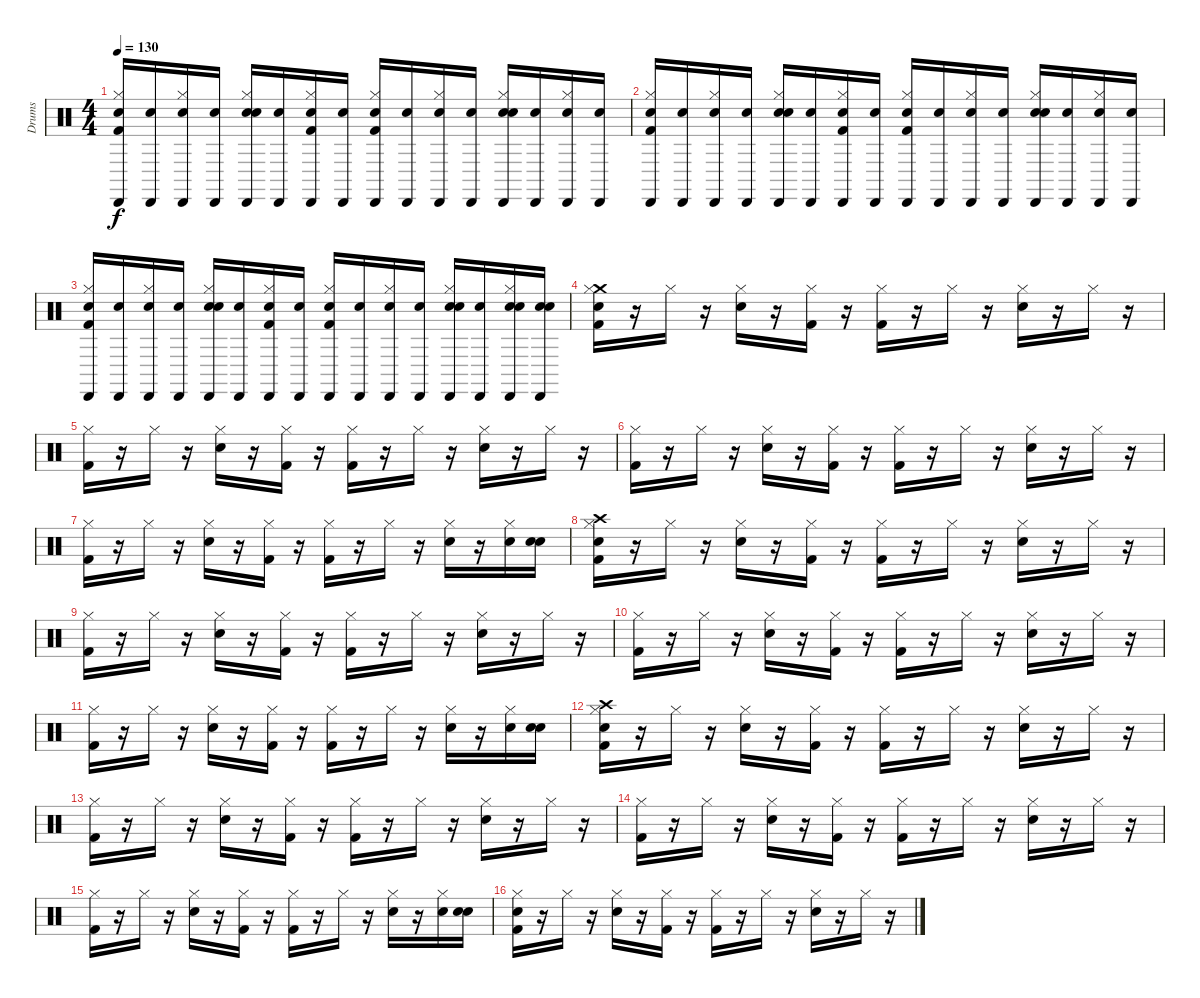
\track ("Drums" "Drums") {instrument percussion}
\staff {score}
\articulation defaults
\ts (4 4)
\tempo 130
\clef neutral
\ks c
("Snare (hit)" "Cabasa (hit)" "Hi-Hat (closed)" "Kick (hit) 2").16{dy f} ("Snare (hit)" "Cabasa (hit)").16 ("Snare (hit)" "Cabasa (hit)" "Hi-Hat (closed)").16 ("Snare (hit)" "Cabasa (hit)").16 ("Snare (hit)" "Cabasa (hit)" "Snare (hit) 2" "Hi-Hat (closed)").16 ("Snare (hit)" "Cabasa (hit)").16 ("Snare (hit)" "Kick (hit) 2" "Hi-Hat (closed)" "Cabasa (hit)").16 ("Snare (hit)" "Cabasa (hit)").16 ("Snare (hit)" "Kick (hit) 2" "Hi-Hat (closed)" "Cabasa (hit)").16 ("Snare (hit)" "Cabasa (hit)").16 ("Snare (hit)" "Cabasa (hit)" "Hi-Hat (closed)").16 ("Snare (hit)" "Cabasa (hit)").16 ("Snare (hit)" "Hi-Hat (closed)" "Cabasa (hit)" "Snare (hit) 2").16 ("Snare (hit)" "Cabasa (hit)").16 ("Snare (hit)" "Hi-Hat (closed)" "Cabasa (hit)").16 ("Snare (hit)" "Cabasa (hit)").16 |
("Snare (hit)" "Kick (hit) 2" "Hi-Hat (closed)" "Cabasa (hit)").16 ("Snare (hit)" "Cabasa (hit)").16 ("Snare (hit)" "Cabasa (hit)" "Hi-Hat (closed)").16 ("Snare (hit)" "Cabasa (hit)").16 ("Snare (hit)" "Snare (hit) 2" "Hi-Hat (closed)" "Cabasa (hit)").16 ("Snare (hit)" "Cabasa (hit)").16 ("Snare (hit)" "Hi-Hat (closed)" "Kick (hit) 2" "Cabasa (hit)").16 ("Snare (hit)" "Cabasa (hit)").16 ("Snare (hit)" "Cabasa (hit)" "Kick (hit) 2" "Hi-Hat (closed)").16 ("Snare (hit)" "Cabasa (hit)").16 ("Snare (hit)" "Hi-Hat (closed)" "Cabasa (hit)").16 ("Snare (hit)" "Cabasa (hit)").16 ("Snare (hit)" "Snare (hit) 2" "Hi-Hat (closed)" "Cabasa (hit)").16 ("Snare (hit)" "Cabasa (hit)").16 ("Snare (hit)" "Cabasa (hit)" "Hi-Hat (closed)").16 ("Snare (hit)" "Cabasa (hit)").16 |
("Snare (hit)" "Hi-Hat (closed)" "Cabasa (hit)" "Kick (hit) 2").16 ("Snare (hit)" "Cabasa (hit)").16 ("Snare (hit)" "Hi-Hat (closed)" "Cabasa (hit)").16 ("Snare (hit)" "Cabasa (hit)").16 ("Snare (hit)" "Cabasa (hit)" "Hi-Hat (closed)" "Snare (hit) 2").16 ("Snare (hit)" "Cabasa (hit)").16 ("Snare (hit)" "Kick (hit) 2" "Cabasa (hit)" "Hi-Hat (closed)").16 ("Snare (hit)" "Cabasa (hit)").16 ("Snare (hit)" "Hi-Hat (closed)" "Kick (hit) 2" "Cabasa (hit)").16 ("Snare (hit)" "Cabasa (hit)").16 ("Snare (hit)" "Cabasa (hit)" "Hi-Hat (closed)").16 ("Snare (hit)" "Cabasa (hit)").16 ("Snare (hit)" "Snare (hit) 2" "Cabasa (hit)" "Hi-Hat (closed)").16 ("Snare (hit)" "Cabasa (hit)").16 ("Snare (hit)" "Hi-Hat (closed)" "Cabasa (hit)" "Snare (hit) 2").16 ("Snare (hit)" "Snare (hit) 2" "Cabasa (hit)").16 |
("Snare (hit)" "Kick (hit) 2" "Crash medium (hit)" "Hi-Hat (closed)").16 r.16 "Hi-Hat (closed)".16 r.16 ("Snare (hit) 2" "Hi-Hat (closed)").16 r.16 ("Hi-Hat (closed)" "Kick (hit) 2").16 r.16 ("Kick (hit) 2" "Hi-Hat (closed)").16 r.16 "Hi-Hat (closed)".16 r.16 ("Hi-Hat (closed)" "Snare (hit) 2").16 r.16 "Hi-Hat (closed)".16 r.16 |
("Hi-Hat (closed)" "Kick (hit) 2").16 r.16 "Hi-Hat (closed)".16 r.16 ("Hi-Hat (closed)" "Snare (hit) 2").16 r.16 ("Kick (hit) 2" "Hi-Hat (closed)").16 r.16 ("Kick (hit) 2" "Hi-Hat (closed)").16 r.16 "Hi-Hat (closed)".16 r.16 ("Hi-Hat (closed)" "Snare (hit) 2").16 r.16 "Hi-Hat (closed)".16 r.16 |
("Kick (hit) 2" "Hi-Hat (closed)").16 r.16 "Hi-Hat (closed)".16 r.16 ("Snare (hit) 2" "Hi-Hat (closed)").16 r.16 ("Kick (hit) 2" "Hi-Hat (closed)").16 r.16 ("Kick (hit) 2" "Hi-Hat (closed)").16 r.16 "Hi-Hat (closed)".16 r.16 ("Hi-Hat (closed)" "Snare (hit) 2").16 r.16 "Hi-Hat (closed)".16 r.16 |
("Kick (hit) 2" "Hi-Hat (closed)").16 r.16 "Hi-Hat (closed)".16 r.16 ("Hi-Hat (closed)" "Snare (hit) 2").16 r.16 ("Hi-Hat (closed)" "Kick (hit) 2").16 r.16 ("Kick (hit) 2" "Hi-Hat (closed)").16 r.16 "Hi-Hat (closed)".16 r.16 ("Snare (hit) 2" "Hi-Hat (closed)").16 r.16 ("Snare (hit) 2" "Hi-Hat (closed)").16 ("Snare (hit)" "Snare (hit) 2").16 |
("Snare (hit)" "Crash high (hit)" "Hi-Hat (closed)" "Kick (hit) 2").16 r.16 "Hi-Hat (closed)".16 r.16 ("Hi-Hat (closed)" "Snare (hit) 2").16 r.16 ("Hi-Hat (closed)" "Kick (hit) 2").16 r.16 ("Kick (hit) 2" "Hi-Hat (closed)").16 r.16 "Hi-Hat (closed)".16 r.16 ("Snare (hit) 2" "Hi-Hat (closed)").16 r.16 "Hi-Hat (closed)".16 r.16 |
("Kick (hit) 2" "Hi-Hat (closed)").16 r.16 "Hi-Hat (closed)".16 r.16 ("Snare (hit) 2" "Hi-Hat (closed)").16 r.16 ("Kick (hit) 2" "Hi-Hat (closed)").16 r.16 ("Kick (hit) 2" "Hi-Hat (closed)").16 r.16 "Hi-Hat (closed)".16 r.16 ("Hi-Hat (closed)" "Snare (hit) 2").16 r.16 "Hi-Hat (closed)".16 r.16 |
("Hi-Hat (closed)" "Kick (hit) 2").16 r.16 "Hi-Hat (closed)".16 r.16 ("Hi-Hat (closed)" "Snare (hit) 2").16 r.16 ("Kick (hit) 2" "Hi-Hat (closed)").16 r.16 ("Kick (hit) 2" "Hi-Hat (closed)").16 r.16 "Hi-Hat (closed)".16 r.16 ("Hi-Hat (closed)" "Snare (hit) 2").16 r.16 "Hi-Hat (closed)".16 r.16 |
("Kick (hit) 2" "Hi-Hat (closed)").16 r.16 "Hi-Hat (closed)".16 r.16 ("Snare (hit) 2" "Hi-Hat (closed)").16 r.16 ("Hi-Hat (closed)" "Kick (hit) 2").16 r.16 ("Kick (hit) 2" "Hi-Hat (closed)").16 r.16 "Hi-Hat (closed)".16 r.16 ("Hi-Hat (closed)" "Snare (hit) 2").16 r.16 ("Snare (hit) 2" "Hi-Hat (closed)").16 ("Snare (hit)" "Snare (hit) 2").16 |
("Snare (hit)" "Hi-Hat (closed)" "Kick (hit) 2" "Crash high (hit)").16 r.16 "Hi-Hat (closed)".16 r.16 ("Hi-Hat (closed)" "Snare (hit) 2").16 r.16 ("Kick (hit) 2" "Hi-Hat (closed)").16 r.16 ("Hi-Hat (closed)" "Kick (hit) 2").16 r.16 "Hi-Hat (closed)".16 r.16 ("Hi-Hat (closed)" "Snare (hit) 2").16 r.16 "Hi-Hat (closed)".16 r.16 |
("Hi-Hat (closed)" "Kick (hit) 2").16 r.16 "Hi-Hat (closed)".16 r.16 ("Hi-Hat (closed)" "Snare (hit) 2").16 r.16 ("Kick (hit) 2" "Hi-Hat (closed)").16 r.16 ("Kick (hit) 2" "Hi-Hat (closed)").16 r.16 "Hi-Hat (closed)".16 r.16 ("Hi-Hat (closed)" "Snare (hit) 2").16 r.16 "Hi-Hat (closed)".16 r.16 |
("Hi-Hat (closed)" "Kick (hit) 2").16 r.16 "Hi-Hat (closed)".16 r.16 ("Snare (hit) 2" "Hi-Hat (closed)").16 r.16 ("Hi-Hat (closed)" "Kick (hit) 2").16 r.16 ("Hi-Hat (closed)" "Kick (hit) 2").16 r.16 "Hi-Hat (closed)".16 r.16 ("Hi-Hat (closed)" "Snare (hit) 2").16 r.16 "Hi-Hat (closed)".16 r.16 |
("Kick (hit) 2" "Hi-Hat (closed)").16 r.16 "Hi-Hat (closed)".16 r.16 ("Snare (hit) 2" "Hi-Hat (closed)").16 r.16 ("Hi-Hat (closed)" "Kick (hit) 2").16 r.16 ("Hi-Hat (closed)" "Kick (hit) 2").16 r.16 "Hi-Hat (closed)".16 r.16 ("Hi-Hat (closed)" "Snare (hit) 2").16 r.16 ("Hi-Hat (closed)" "Snare (hit) 2").16 ("Snare (hit)" "Snare (hit) 2").16 |
("Snare (hit)" "Kick (hit) 2" "Hi-Hat (closed)").16 r.16 "Hi-Hat (closed)".16 r.16 ("Hi-Hat (closed)" "Snare (hit) 2").16 r.16 ("Hi-Hat (closed)" "Kick (hit) 2").16 r.16 ("Hi-Hat (closed)" "Kick (hit) 2").16 r.16 "Hi-Hat (closed)".16 r.16 ("Snare (hit) 2" "Hi-Hat (closed)").16 r.16 "Hi-Hat (closed)".16 r.16
